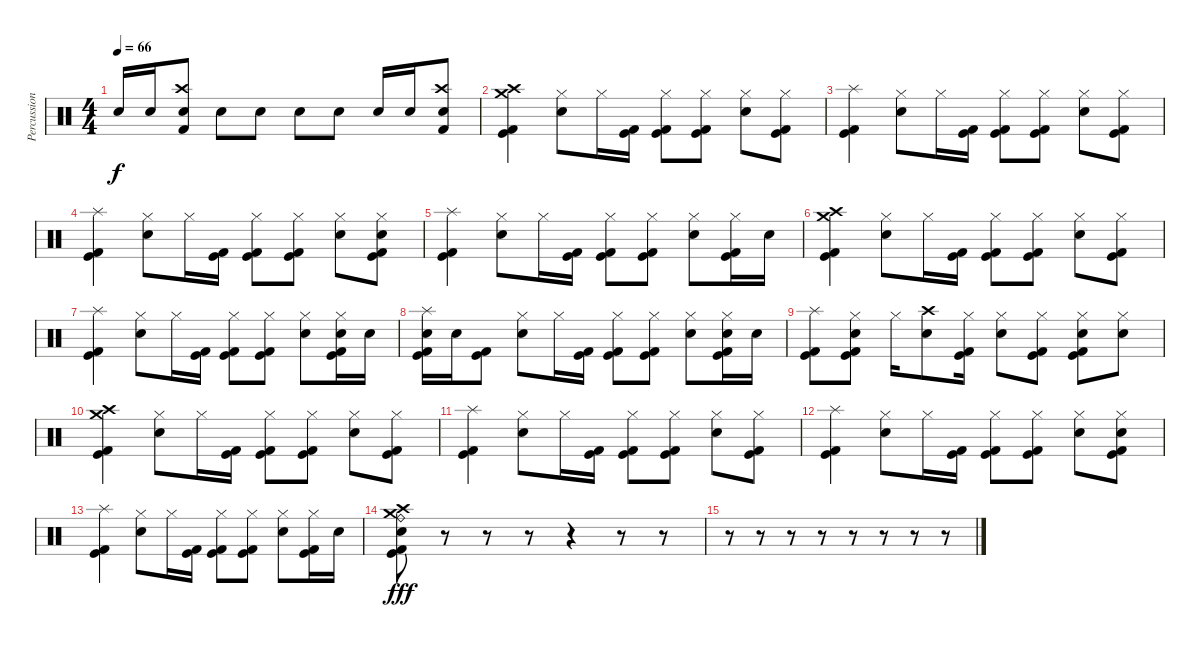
\track ("Percussion" "Percussion") {instrument percussion}
\staff {score}
\articulation defaults
\ts (4 4)
\tempo 66
\clef neutral
\ks c "Snare (hit) 2".16{dy f} "Snare (hit) 2".16
("Crash high (hit)" "Kick (hit) 2" "Snare (hit) 2").8 "Snare (hit) 2".8 "Snare (hit) 2".8 "Snare (hit) 2".8 "Snare (hit) 2".8 "Snare (hit) 2".16 "Snare (hit) 2".16 ("Crash high (hit)" "Kick (hit) 2" "Snare (hit) 2").8 |
("Crash medium (hit)" "Crash high (hit)" "Kick (hit) 2" "Kick (hit)").4 ("Hi-Hat (closed)" "Electric Snare (hit)").8 "Hi-Hat (closed)".16 ("Kick (hit) 2" "Kick (hit)").16 ("Hi-Hat (closed)" "Kick (hit) 2" "Kick (hit)").8 ("Hi-Hat (closed)" "Kick (hit)" "Kick (hit) 2").8 ("Hi-Hat (closed)" "Electric Snare (hit)").8 ("Hi-Hat (closed)" "Kick (hit) 2" "Kick (hit)").8 |
("Splash (hit)" "Kick (hit) 2" "Kick (hit)").4 ("Hi-Hat (closed)" "Electric Snare (hit)").8 "Hi-Hat (closed)".16 ("Kick (hit) 2" "Kick (hit)").16 ("Hi-Hat (closed)" "Kick (hit) 2" "Kick (hit)").8 ("Hi-Hat (closed)" "Kick (hit)" "Kick (hit) 2").8 ("Hi-Hat (closed)" "Electric Snare (hit)").8 ("Hi-Hat (closed)" "Kick (hit) 2" "Kick (hit)").8 |
("Splash (hit)" "Kick (hit) 2" "Kick (hit)").4 ("Hi-Hat (closed)" "Electric Snare (hit)").8 "Hi-Hat (closed)".16 ("Kick (hit) 2" "Kick (hit)").16 ("Hi-Hat (closed)" "Kick (hit) 2" "Kick (hit)").8 ("Hi-Hat (closed)" "Kick (hit)" "Kick (hit) 2").8 ("Hi-Hat (closed)" "Electric Snare (hit)").8 ("Hi-Hat (closed)" "Electric Snare (hit)" "Kick (hit) 2" "Kick (hit)").8 |
("Splash (hit)" "Kick (hit) 2" "Kick (hit)").4 ("Hi-Hat (closed)" "Electric Snare (hit)").8 "Hi-Hat (closed)".16 ("Kick (hit) 2" "Kick (hit)").16 ("Hi-Hat (closed)" "Kick (hit) 2" "Kick (hit)").8 ("Hi-Hat (closed)" "Kick (hit)" "Kick (hit) 2").8 ("Hi-Hat (closed)" "Electric Snare (hit)").8 ("Hi-Hat (closed)" "Kick (hit) 2" "Kick (hit)").16 "Electric Snare (hit)".16 |
("Crash medium (hit)" "Crash high (hit)" "Kick (hit) 2" "Kick (hit)").4 ("Hi-Hat (closed)" "Electric Snare (hit)").8 "Hi-Hat (closed)".16 ("Kick (hit) 2" "Kick (hit)").16 ("Hi-Hat (closed)" "Kick (hit) 2" "Kick (hit)").8 ("Hi-Hat (closed)" "Kick (hit)" "Kick (hit) 2").8 ("Hi-Hat (closed)" "Electric Snare (hit)").8 ("Hi-Hat (closed)" "Kick (hit) 2" "Kick (hit)").8 |
("Splash (hit)" "Kick (hit) 2" "Kick (hit)").4 ("Hi-Hat (closed)" "Electric Snare (hit)").8 "Hi-Hat (closed)".16 ("Kick (hit) 2" "Kick (hit)").16 ("Hi-Hat (closed)" "Kick (hit) 2" "Kick (hit)").8 ("Hi-Hat (closed)" "Kick (hit)" "Kick (hit) 2").8 ("Hi-Hat (closed)" "Electric Snare (hit)").8 ("Hi-Hat (closed)" "Electric Snare (hit)" "Kick (hit) 2" "Kick (hit)").16 "Electric Snare (hit)".16 |
("Splash (hit)" "Electric Snare (hit)" "Kick (hit) 2" "Kick (hit)").16 "Electric Snare (hit)".16 ("Kick (hit) 2" "Kick (hit)").8 ("Hi-Hat (closed)" "Electric Snare (hit)").8 "Hi-Hat (closed)".16 ("Kick (hit) 2" "Kick (hit)").16 ("Hi-Hat (closed)" "Kick (hit) 2" "Kick (hit)").8 ("Hi-Hat (closed)" "Kick (hit)" "Kick (hit) 2").8 ("Hi-Hat (closed)" "Electric Snare (hit)").8 ("Hi-Hat (closed)" "Electric Snare (hit)" "Kick (hit) 2" "Kick (hit)").16 "Electric Snare (hit)".16 |
("Splash (hit)" "Kick (hit) 2" "Kick (hit)").8 ("Hi-Hat (closed)" "Electric Snare (hit)" "Kick (hit) 2" "Kick (hit)").8 "Hi-Hat (closed)".16 ("Crash high (hit)" "Electric Snare (hit)").8 ("Hi-Hat (closed)" "Kick (hit)" "Kick (hit) 2").16 ("Hi-Hat (closed)" "Electric Snare (hit)").8 ("Hi-Hat (closed)" "Kick (hit) 2" "Kick (hit)").8 ("Hi-Hat (closed)" "Electric Snare (hit)" "Kick (hit)" "Kick (hit) 2").8 ("Hi-Hat (closed)" "Electric Snare (hit)").8 |
("Crash medium (hit)" "Crash high (hit)" "Kick (hit) 2" "Kick (hit)").4 ("Hi-Hat (closed)" "Electric Snare (hit)").8 "Hi-Hat (closed)".16 ("Kick (hit) 2" "Kick (hit)").16 ("Hi-Hat (closed)" "Kick (hit) 2" "Kick (hit)").8 ("Hi-Hat (closed)" "Kick (hit)" "Kick (hit) 2").8 ("Hi-Hat (closed)" "Electric Snare (hit)").8 ("Hi-Hat (closed)" "Kick (hit) 2" "Kick (hit)").8 |
("Splash (hit)" "Kick (hit) 2" "Kick (hit)").4 ("Hi-Hat (closed)" "Electric Snare (hit)").8 "Hi-Hat (closed)".16 ("Kick (hit) 2" "Kick (hit)").16 ("Hi-Hat (closed)" "Kick (hit) 2" "Kick (hit)").8 ("Hi-Hat (closed)" "Kick (hit)" "Kick (hit) 2").8 ("Hi-Hat (closed)" "Electric Snare (hit)").8 ("Hi-Hat (closed)" "Kick (hit) 2" "Kick (hit)").8 |
("Splash (hit)" "Kick (hit) 2" "Kick (hit)").4 ("Hi-Hat (closed)" "Electric Snare (hit)").8 "Hi-Hat (closed)".16 ("Kick (hit) 2" "Kick (hit)").16 ("Hi-Hat (closed)" "Kick (hit) 2" "Kick (hit)").8 ("Hi-Hat (closed)" "Kick (hit)" "Kick (hit) 2").8 ("Hi-Hat (closed)" "Electric Snare (hit)").8 ("Hi-Hat (closed)" "Electric Snare (hit)" "Kick (hit) 2" "Kick (hit)").8 |
("Splash (hit)" "Kick (hit) 2" "Kick (hit)").4 ("Hi-Hat (closed)" "Electric Snare (hit)").8 "Hi-Hat (closed)".16 ("Kick (hit) 2" "Kick (hit)").16 ("Hi-Hat (closed)" "Kick (hit) 2" "Kick (hit)").8 ("Hi-Hat (closed)" "Kick (hit)" "Kick (hit) 2").8 ("Hi-Hat (closed)" "Electric Snare (hit)").8 ("Hi-Hat (closed)" "Kick (hit) 2" "Kick (hit)").16 "Electric Snare (hit)".16 |
("Crash high (hit)" "Crash medium (hit)" "Electric Snare (hit)" "Ride (bell)" "Kick (hit) 2" "Kick (hit)").8{dy fff} r.8 r.8 r.8 r.4 r.8 r.8 |
r.8 r.8 r.8 r.8 r.8 r.8 r.8 r.8
